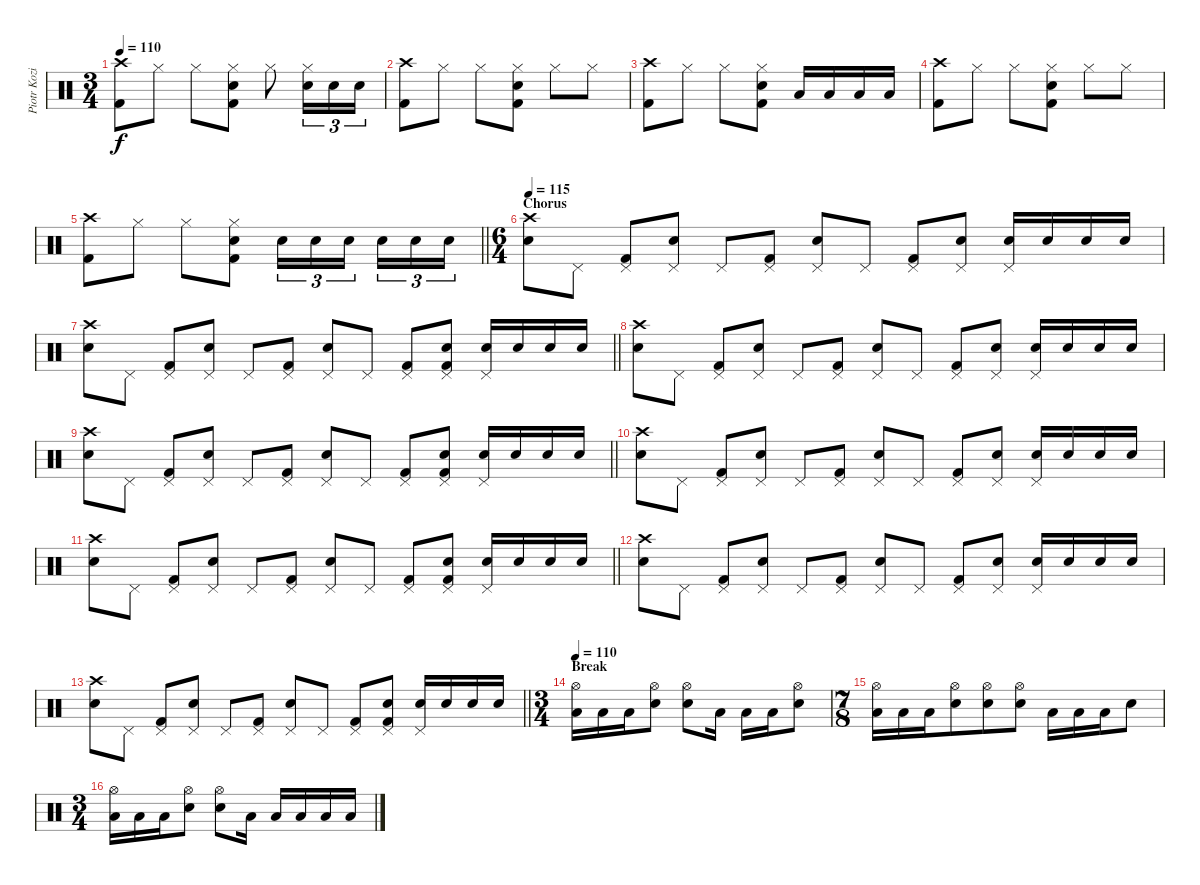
\track ("Piotr Kozieradzki" "Piotr Kozi") {instrument percussion}
\staff {score}
\articulation defaults
\ts (3 4)
\tempo 110
\clef neutral
\ks c
("Crash high (hit)" "Kick (hit) 2").8{dy f} "Hi-Hat (closed)".8 "Hi-Hat (closed)".8 ("Hi-Hat (closed)" "Electric Snare (hit)" "Kick (hit) 2").8 "Hi-Hat (closed)".8 ("Hi-Hat (closed)" "Electric Snare (hit)").16{tu (3 2)} "Electric Snare (hit)".16{tu (3 2)} "Electric Snare (hit)".16{tu (3 2)} |
("Crash high (hit)" "Kick (hit) 2").8 "Hi-Hat (closed)".8 "Hi-Hat (closed)".8 ("Hi-Hat (closed)" "Electric Snare (hit)" "Kick (hit) 2").8 "Hi-Hat (closed)".8 "Hi-Hat (closed)".8 |
("Crash high (hit)" "Kick (hit) 2").8 "Hi-Hat (closed)".8 "Hi-Hat (closed)".8 ("Hi-Hat (closed)" "Electric Snare (hit)" "Kick (hit) 2").8 "Low Tom (hit)".16 "Low Tom (hit)".16 "Low Tom (hit)".16 "Low Tom (hit)".16 |
("Crash high (hit)" "Kick (hit) 2").8 "Hi-Hat (closed)".8 "Hi-Hat (closed)".8 ("Hi-Hat (closed)" "Electric Snare (hit)" "Kick (hit) 2").8 "Hi-Hat (closed)".8 "Hi-Hat (closed)".8 |
\barLineRight lightlight
("Crash high (hit)" "Kick (hit) 2").8 "Hi-Hat (closed)".8 "Hi-Hat (closed)".8 ("Hi-Hat (closed)" "Electric Snare (hit)" "Kick (hit) 2").8 "Electric Snare (hit)".16{tu (3 2)} "Electric Snare (hit)".16{tu (3 2)} "Electric Snare (hit)".16{tu (3 2) beam splitsecondary} "Electric Snare (hit)".16{tu (3 2)} "Electric Snare (hit)".16{tu (3 2)} "Electric Snare (hit)".16{tu (3 2)} |
\ts (6 4)
\section ("" "Chorus")
\tempo 115
("Crash high (hit)" "Electric Snare (hit)").8 "Pedal Hi-Hat (hit)".8 ("Pedal Hi-Hat (hit)" "Kick (hit) 2").8 ("Pedal Hi-Hat (hit)" "Electric Snare (hit)").8 "Pedal Hi-Hat (hit)".8 ("Pedal Hi-Hat (hit)" "Kick (hit) 2").8 ("Pedal Hi-Hat (hit)" "Electric Snare (hit)").8 "Pedal Hi-Hat (hit)".8 ("Pedal Hi-Hat (hit)" "Kick (hit) 2").8 ("Pedal Hi-Hat (hit)" "Electric Snare (hit)").8 ("Pedal Hi-Hat (hit)" "Electric Snare (hit)").16 "Electric Snare (hit)".16 "Electric Snare (hit)".16 "Electric Snare (hit)".16 |
\barLineRight lightlight
("Crash high (hit)" "Electric Snare (hit)").8 "Pedal Hi-Hat (hit)".8 ("Pedal Hi-Hat (hit)" "Kick (hit) 2").8 ("Pedal Hi-Hat (hit)" "Electric Snare (hit)").8 "Pedal Hi-Hat (hit)".8 ("Pedal Hi-Hat (hit)" "Kick (hit) 2").8 ("Pedal Hi-Hat (hit)" "Electric Snare (hit)").8 "Pedal Hi-Hat (hit)".8 ("Pedal Hi-Hat (hit)" "Kick (hit) 2").8 ("Pedal Hi-Hat (hit)" "Electric Snare (hit)" "Kick (hit) 2").8 ("Pedal Hi-Hat (hit)" "Electric Snare (hit)").16 "Electric Snare (hit)".16 "Electric Snare (hit)".16 "Electric Snare (hit)".16 |
("Crash high (hit)" "Electric Snare (hit)").8 "Pedal Hi-Hat (hit)".8 ("Pedal Hi-Hat (hit)" "Kick (hit) 2").8 ("Pedal Hi-Hat (hit)" "Electric Snare (hit)").8 "Pedal Hi-Hat (hit)".8 ("Pedal Hi-Hat (hit)" "Kick (hit) 2").8 ("Pedal Hi-Hat (hit)" "Electric Snare (hit)").8 "Pedal Hi-Hat (hit)".8 ("Pedal Hi-Hat (hit)" "Kick (hit) 2").8 ("Pedal Hi-Hat (hit)" "Electric Snare (hit)").8 ("Pedal Hi-Hat (hit)" "Electric Snare (hit)").16 "Electric Snare (hit)".16 "Electric Snare (hit)".16 "Electric Snare (hit)".16 |
\barLineRight lightlight
("Crash high (hit)" "Electric Snare (hit)").8 "Pedal Hi-Hat (hit)".8 ("Pedal Hi-Hat (hit)" "Kick (hit) 2").8 ("Pedal Hi-Hat (hit)" "Electric Snare (hit)").8 "Pedal Hi-Hat (hit)".8 ("Pedal Hi-Hat (hit)" "Kick (hit) 2").8 ("Pedal Hi-Hat (hit)" "Electric Snare (hit)").8 "Pedal Hi-Hat (hit)".8 ("Pedal Hi-Hat (hit)" "Kick (hit) 2").8 ("Pedal Hi-Hat (hit)" "Electric Snare (hit)" "Kick (hit) 2").8 ("Pedal Hi-Hat (hit)" "Electric Snare (hit)").16 "Electric Snare (hit)".16 "Electric Snare (hit)".16 "Electric Snare (hit)".16 |
("Crash high (hit)" "Electric Snare (hit)").8 "Pedal Hi-Hat (hit)".8 ("Pedal Hi-Hat (hit)" "Kick (hit) 2").8 ("Pedal Hi-Hat (hit)" "Electric Snare (hit)").8 "Pedal Hi-Hat (hit)".8 ("Pedal Hi-Hat (hit)" "Kick (hit) 2").8 ("Pedal Hi-Hat (hit)" "Electric Snare (hit)").8 "Pedal Hi-Hat (hit)".8 ("Pedal Hi-Hat (hit)" "Kick (hit) 2").8 ("Pedal Hi-Hat (hit)" "Electric Snare (hit)").8 ("Pedal Hi-Hat (hit)" "Electric Snare (hit)").16 "Electric Snare (hit)".16 "Electric Snare (hit)".16 "Electric Snare (hit)".16 |
\barLineRight lightlight
("Crash high (hit)" "Electric Snare (hit)").8 "Pedal Hi-Hat (hit)".8 ("Pedal Hi-Hat (hit)" "Kick (hit) 2").8 ("Pedal Hi-Hat (hit)" "Electric Snare (hit)").8 "Pedal Hi-Hat (hit)".8 ("Pedal Hi-Hat (hit)" "Kick (hit) 2").8 ("Pedal Hi-Hat (hit)" "Electric Snare (hit)").8 "Pedal Hi-Hat (hit)".8 ("Pedal Hi-Hat (hit)" "Kick (hit) 2").8 ("Pedal Hi-Hat (hit)" "Electric Snare (hit)" "Kick (hit) 2").8 ("Pedal Hi-Hat (hit)" "Electric Snare (hit)").16 "Electric Snare (hit)".16 "Electric Snare (hit)".16 "Electric Snare (hit)".16 |
("Crash high (hit)" "Electric Snare (hit)").8 "Pedal Hi-Hat (hit)".8 ("Pedal Hi-Hat (hit)" "Kick (hit) 2").8 ("Pedal Hi-Hat (hit)" "Electric Snare (hit)").8 "Pedal Hi-Hat (hit)".8 ("Pedal Hi-Hat (hit)" "Kick (hit) 2").8 ("Pedal Hi-Hat (hit)" "Electric Snare (hit)").8 "Pedal Hi-Hat (hit)".8 ("Pedal Hi-Hat (hit)" "Kick (hit) 2").8 ("Pedal Hi-Hat (hit)" "Electric Snare (hit)").8 ("Pedal Hi-Hat (hit)" "Electric Snare (hit)").16 "Electric Snare (hit)".16 "Electric Snare (hit)".16 "Electric Snare (hit)".16 |
\barLineRight lightlight
("Crash high (hit)" "Electric Snare (hit)").8 "Pedal Hi-Hat (hit)".8 ("Pedal Hi-Hat (hit)" "Kick (hit) 2").8 ("Pedal Hi-Hat (hit)" "Electric Snare (hit)").8 "Pedal Hi-Hat (hit)".8 ("Pedal Hi-Hat (hit)" "Kick (hit) 2").8 ("Pedal Hi-Hat (hit)" "Electric Snare (hit)").8 "Pedal Hi-Hat (hit)".8 ("Pedal Hi-Hat (hit)" "Kick (hit) 2").8 ("Pedal Hi-Hat (hit)" "Electric Snare (hit)" "Kick (hit) 2").8 ("Pedal Hi-Hat (hit)" "Electric Snare (hit)").16 "Electric Snare (hit)".16 "Electric Snare (hit)".16 "Electric Snare (hit)".16 |
\ts (3 4)
\section ("" "Break")
\tempo 110
("Hi-Hat (open)" "Low Tom (hit)").16 "Low Tom (hit)".16 "Low Tom (hit)".16 ("Hi-Hat (open)" "Electric Snare (hit)").8 ("Hi-Hat (open)" "Electric Snare (hit)").8 "Low Tom (hit)".16 "Low Tom (hit)".16 "Low Tom (hit)".16 ("Hi-Hat (open)" "Electric Snare (hit)").8 |
\ts (7 8)
("Hi-Hat (open)" "Low Tom (hit)").16 "Low Tom (hit)".16 "Low Tom (hit)".16 ("Hi-Hat (open)" "Electric Snare (hit)").8 ("Hi-Hat (open)" "Electric Snare (hit)").8 ("Hi-Hat (open)" "Electric Snare (hit)").8 "Low Tom (hit)".16 "Low Tom (hit)".16 "Low Tom (hit)".16 "Electric Snare (hit)".8 |
\ts (3 4)
("Hi-Hat (open)" "Low Tom (hit)").16 "Low Tom (hit)".16 "Low Tom (hit)".16 ("Hi-Hat (open)" "Electric Snare (hit)").8 ("Hi-Hat (open)" "Electric Snare (hit)").8 "Low Tom (hit)".16 "Low Tom (hit)".16 "Low Tom (hit)".16 "Low Tom (hit)".16 "Low Tom (hit)".16
